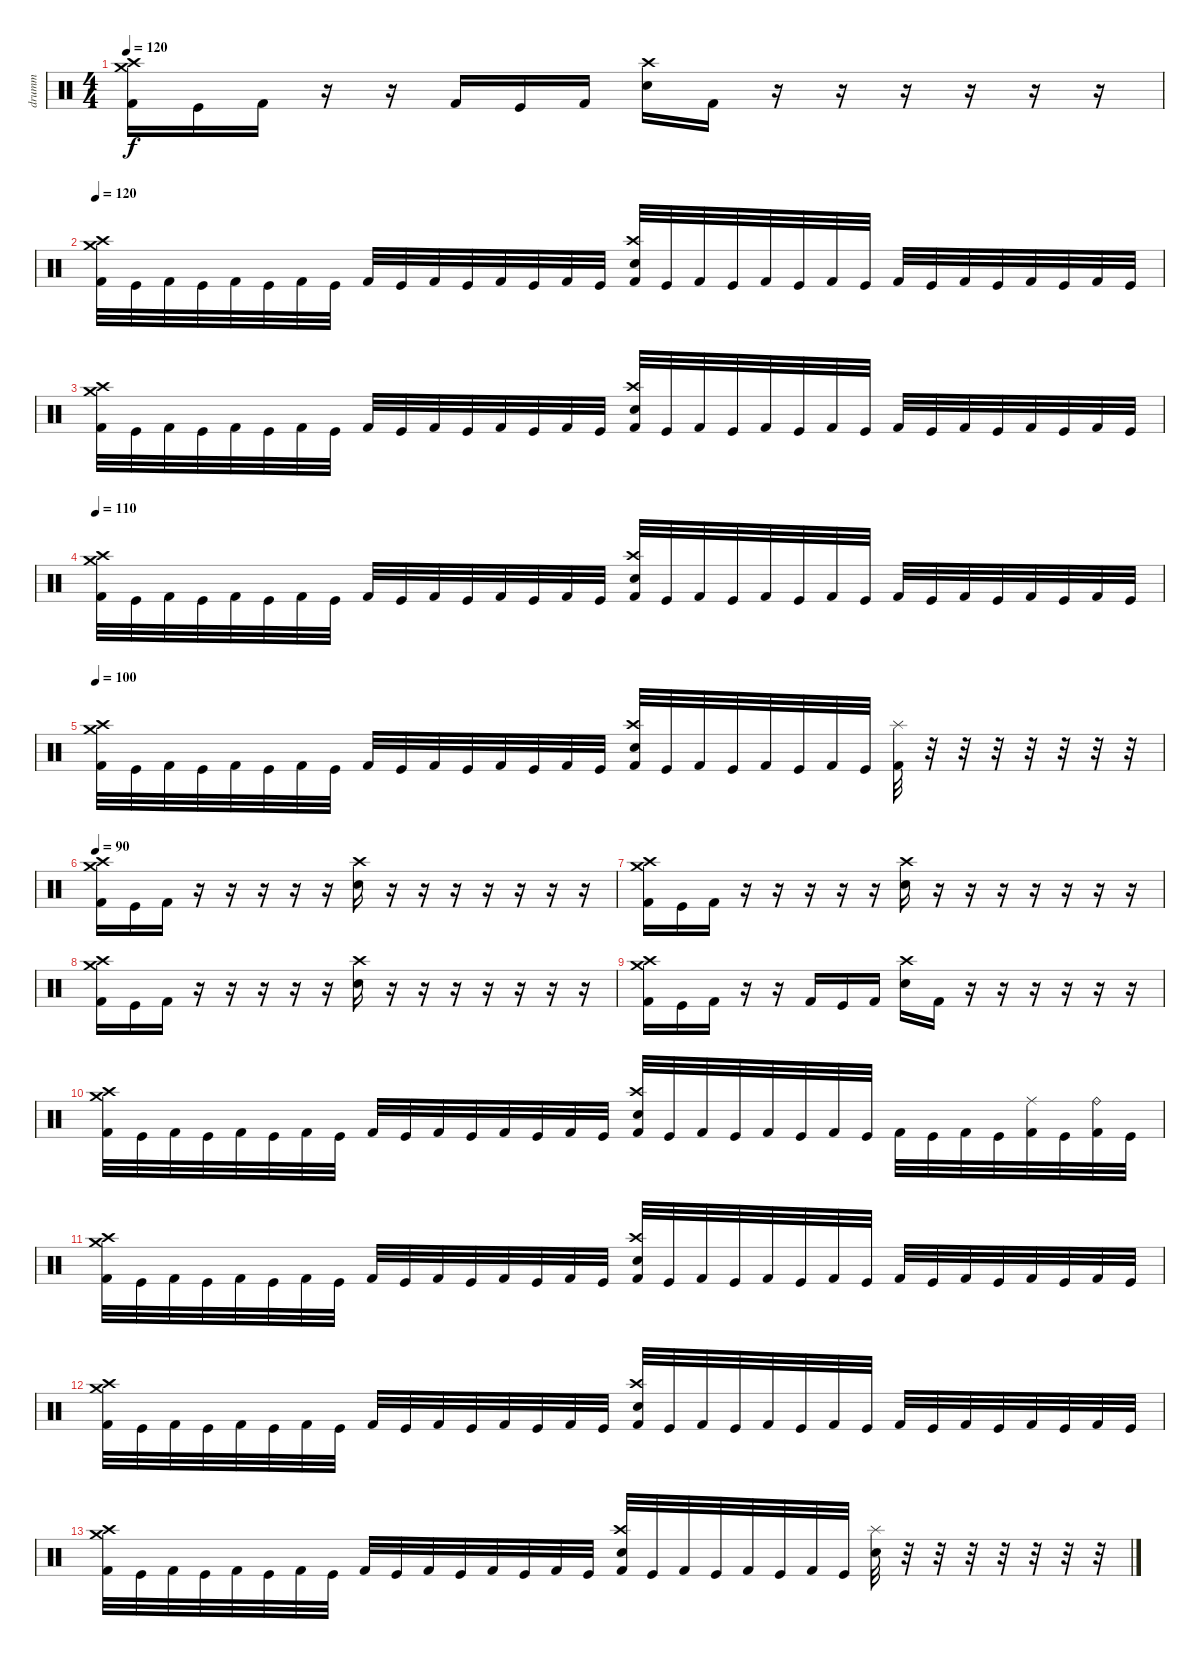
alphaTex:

\track ("drumm" "drumm") {instrument percussion}
\staff
\articulation defaults
\ts (4 4)
\tempo 120
\clef neutral
\ks c
("Kick (hit) 2" "Crash medium (hit)" "Crash high (hit)").16{dy f} "Kick (hit)".16 "Kick (hit) 2".16 r.16 r.16 "Kick (hit) 2".16 "Kick (hit)".16 "Kick (hit) 2".16 ("Electric Snare (hit)" "Crash high (hit)").16 "Kick (hit) 2".16 r.16 r.16 r.16 r.16 r.16 r.16 |
\tempo 120
("Kick (hit) 2" "Crash medium (hit)" "Crash high (hit)").32 "Kick (hit)".32 "Kick (hit) 2".32 "Kick (hit)".32 "Kick (hit) 2".32 "Kick (hit)".32 "Kick (hit) 2".32 "Kick (hit)".32 "Kick (hit) 2".32 "Kick (hit)".32 "Kick (hit) 2".32 "Kick (hit)".32 "Kick (hit) 2".32 "Kick (hit)".32 "Kick (hit) 2".32 "Kick (hit)".32 ("Kick (hit) 2" "Electric Snare (hit)" "Crash high (hit)").32 "Kick (hit)".32 "Kick (hit) 2".32 "Kick (hit)".32 "Kick (hit) 2".32 "Kick (hit)".32 "Kick (hit) 2".32 "Kick (hit)".32 "Kick (hit) 2".32 "Kick (hit)".32 "Kick (hit) 2".32 "Kick (hit)".32 "Kick (hit) 2".32 "Kick (hit)".32 "Kick (hit) 2".32 "Kick (hit)".32 |
("Kick (hit) 2" "Crash medium (hit)" "Crash high (hit)").32 "Kick (hit)".32 "Kick (hit) 2".32 "Kick (hit)".32 "Kick (hit) 2".32 "Kick (hit)".32 "Kick (hit) 2".32 "Kick (hit)".32 "Kick (hit) 2".32 "Kick (hit)".32 "Kick (hit) 2".32 "Kick (hit)".32 "Kick (hit) 2".32 "Kick (hit)".32 "Kick (hit) 2".32 "Kick (hit)".32 ("Kick (hit) 2" "Electric Snare (hit)" "Crash high (hit)").32 "Kick (hit)".32 "Kick (hit) 2".32 "Kick (hit)".32 "Kick (hit) 2".32 "Kick (hit)".32 "Kick (hit) 2".32 "Kick (hit)".32 "Kick (hit) 2".32 "Kick (hit)".32 "Kick (hit) 2".32 "Kick (hit)".32 "Kick (hit) 2".32 "Kick (hit)".32 "Kick (hit) 2".32 "Kick (hit)".32 |
\tempo 110
("Kick (hit) 2" "Crash medium (hit)" "Crash high (hit)").32 "Kick (hit)".32 "Kick (hit) 2".32 "Kick (hit)".32 "Kick (hit) 2".32 "Kick (hit)".32 "Kick (hit) 2".32 "Kick (hit)".32 "Kick (hit) 2".32 "Kick (hit)".32 "Kick (hit) 2".32 "Kick (hit)".32 "Kick (hit) 2".32 "Kick (hit)".32 "Kick (hit) 2".32 "Kick (hit)".32 ("Kick (hit) 2" "Electric Snare (hit)" "Crash high (hit)").32 "Kick (hit)".32 "Kick (hit) 2".32 "Kick (hit)".32 "Kick (hit) 2".32 "Kick (hit)".32 "Kick (hit) 2".32 "Kick (hit)".32 "Kick (hit) 2".32 "Kick (hit)".32 "Kick (hit) 2".32 "Kick (hit)".32 "Kick (hit) 2".32 "Kick (hit)".32 "Kick (hit) 2".32 "Kick (hit)".32 |
\tempo 100
("Kick (hit) 2" "Crash medium (hit)" "Crash high (hit)").32 "Kick (hit)".32 "Kick (hit) 2".32 "Kick (hit)".32 "Kick (hit) 2".32 "Kick (hit)".32 "Kick (hit) 2".32 "Kick (hit)".32 "Kick (hit) 2".32 "Kick (hit)".32 "Kick (hit) 2".32 "Kick (hit)".32 "Kick (hit) 2".32 "Kick (hit)".32 "Kick (hit) 2".32 "Kick (hit)".32 ("Kick (hit) 2" "Electric Snare (hit)" "Crash high (hit)").32 "Kick (hit)".32 "Kick (hit) 2".32 "Kick (hit)".32 "Kick (hit) 2".32 "Kick (hit)".32 "Kick (hit) 2".32 "Kick (hit)".32 ("Kick (hit) 2" "Splash (hit)").32 r.32 r.32 r.32 r.32 r.32 r.32 r.32 |
\tempo 90
("Kick (hit) 2" "Crash medium (hit)" "Crash high (hit)").16 "Kick (hit)".16 "Kick (hit) 2".16 r.16 r.16 r.16 r.16 r.16 ("Electric Snare (hit)" "Crash high (hit)").16 r.16 r.16 r.16 r.16 r.16 r.16 r.16 |
("Kick (hit) 2" "Crash medium (hit)" "Crash high (hit)").16 "Kick (hit)".16 "Kick (hit) 2".16 r.16 r.16 r.16 r.16 r.16 ("Electric Snare (hit)" "Crash high (hit)").16 r.16 r.16 r.16 r.16 r.16 r.16 r.16 |
("Kick (hit) 2" "Crash medium (hit)" "Crash high (hit)").16 "Kick (hit)".16 "Kick (hit) 2".16 r.16 r.16 r.16 r.16 r.16 ("Electric Snare (hit)" "Crash high (hit)").16 r.16 r.16 r.16 r.16 r.16 r.16 r.16 |
("Kick (hit) 2" "Crash medium (hit)" "Crash high (hit)").16 "Kick (hit)".16 "Kick (hit) 2".16 r.16 r.16 "Kick (hit) 2".16 "Kick (hit)".16 "Kick (hit) 2".16 ("Electric Snare (hit)" "Crash high (hit)").16 "Kick (hit) 2".16 r.16 r.16 r.16 r.16 r.16 r.16 |
("Kick (hit) 2" "Crash medium (hit)" "Crash high (hit)").32 "Kick (hit)".32 "Kick (hit) 2".32 "Kick (hit)".32 "Kick (hit) 2".32 "Kick (hit)".32 "Kick (hit) 2".32 "Kick (hit)".32 "Kick (hit) 2".32 "Kick (hit)".32 "Kick (hit) 2".32 "Kick (hit)".32 "Kick (hit) 2".32 "Kick (hit)".32 "Kick (hit) 2".32 "Kick (hit)".32 ("Kick (hit) 2" "Electric Snare (hit)" "Crash high (hit)").32 "Kick (hit)".32 "Kick (hit) 2".32 "Kick (hit)".32 "Kick (hit) 2".32 "Kick (hit)".32 "Kick (hit) 2".32 "Kick (hit)".32 "Kick (hit) 2".32 "Kick (hit)".32 "Kick (hit) 2".32 "Kick (hit)".32 ("Kick (hit) 2" "Ride (middle)").32 "Kick (hit)".32 ("Kick (hit) 2" "Ride (bell)").32 "Kick (hit)".32 |
("Kick (hit) 2" "Crash medium (hit)" "Crash high (hit)").32 "Kick (hit)".32 "Kick (hit) 2".32 "Kick (hit)".32 "Kick (hit) 2".32 "Kick (hit)".32 "Kick (hit) 2".32 "Kick (hit)".32 "Kick (hit) 2".32 "Kick (hit)".32 "Kick (hit) 2".32 "Kick (hit)".32 "Kick (hit) 2".32 "Kick (hit)".32 "Kick (hit) 2".32 "Kick (hit)".32 ("Kick (hit) 2" "Electric Snare (hit)" "Crash high (hit)").32 "Kick (hit)".32 "Kick (hit) 2".32 "Kick (hit)".32 "Kick (hit) 2".32 "Kick (hit)".32 "Kick (hit) 2".32 "Kick (hit)".32 "Kick (hit) 2".32 "Kick (hit)".32 "Kick (hit) 2".32 "Kick (hit)".32 "Kick (hit) 2".32 "Kick (hit)".32 "Kick (hit) 2".32 "Kick (hit)".32 |
("Kick (hit) 2" "Crash medium (hit)" "Crash high (hit)").32 "Kick (hit)".32 "Kick (hit) 2".32 "Kick (hit)".32 "Kick (hit) 2".32 "Kick (hit)".32 "Kick (hit) 2".32 "Kick (hit)".32 "Kick (hit) 2".32 "Kick (hit)".32 "Kick (hit) 2".32 "Kick (hit)".32 "Kick (hit) 2".32 "Kick (hit)".32 "Kick (hit) 2".32 "Kick (hit)".32 ("Kick (hit) 2" "Electric Snare (hit)" "Crash high (hit)").32 "Kick (hit)".32 "Kick (hit) 2".32 "Kick (hit)".32 "Kick (hit) 2".32 "Kick (hit)".32 "Kick (hit) 2".32 "Kick (hit)".32 "Kick (hit) 2".32 "Kick (hit)".32 "Kick (hit) 2".32 "Kick (hit)".32 "Kick (hit) 2".32 "Kick (hit)".32 "Kick (hit) 2".32 "Kick (hit)".32 |
("Kick (hit) 2" "Crash medium (hit)" "Crash high (hit)").32 "Kick (hit)".32 "Kick (hit) 2".32 "Kick (hit)".32 "Kick (hit) 2".32 "Kick (hit)".32 "Kick (hit) 2".32 "Kick (hit)".32 "Kick (hit) 2".32 "Kick (hit)".32 "Kick (hit) 2".32 "Kick (hit)".32 "Kick (hit) 2".32 "Kick (hit)".32 "Kick (hit) 2".32 "Kick (hit)".32 ("Kick (hit) 2" "Electric Snare (hit)" "Crash high (hit)").32 "Kick (hit)".32 "Kick (hit) 2".32 "Kick (hit)".32 "Kick (hit) 2".32 "Kick (hit)".32 "Kick (hit) 2".32 "Kick (hit)".32 ("Electric Snare (hit)" "Splash (hit)").32 r.32 r.32 r.32 r.32 r.32 r.32 r.32
